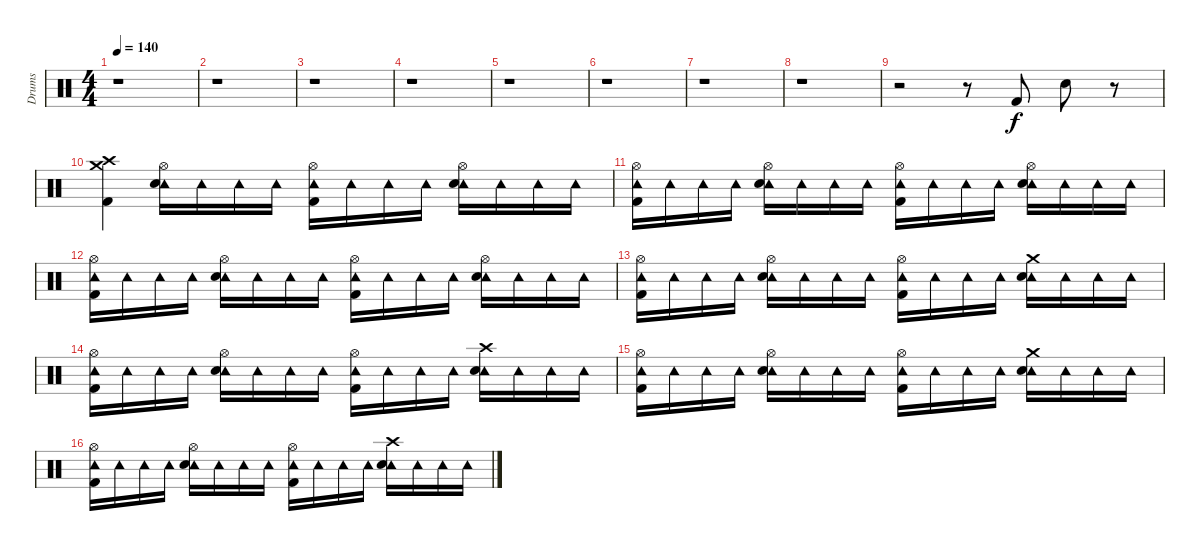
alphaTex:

\track ("Drums" "Drums") {instrument percussion}
\staff {score}
\articulation defaults
\ts (4 4)
\tempo 140
\clef neutral
\ks c
r.1{dy f} |
r.1 |
r.1 |
r.1 |
r.1 |
r.1 |
r.1 |
r.1 |
r.2 r.8 "Kick (hit) 2".8 "Snare (hit) 2".8 r.8 |
("Crash medium (hit)" "Crash high (hit)" "Kick (hit) 2").4 ("Tambourine (hit)" "Hi-Hat (open)" "Snare (hit) 2").16 "Tambourine (hit)".16 "Tambourine (hit)".16 "Tambourine (hit)".16 ("Tambourine (hit)" "Hi-Hat (open)" "Kick (hit) 2").16 "Tambourine (hit)".16 "Tambourine (hit)".16 "Tambourine (hit)".16 ("Tambourine (hit)" "Hi-Hat (open)" "Snare (hit) 2").16 "Tambourine (hit)".16 "Tambourine (hit)".16 "Tambourine (hit)".16 |
("Tambourine (hit)" "Hi-Hat (open)" "Kick (hit) 2").16 "Tambourine (hit)".16 "Tambourine (hit)".16 "Tambourine (hit)".16 ("Tambourine (hit)" "Hi-Hat (open)" "Snare (hit) 2").16 "Tambourine (hit)".16 "Tambourine (hit)".16 "Tambourine (hit)".16 ("Tambourine (hit)" "Hi-Hat (open)" "Kick (hit) 2").16 "Tambourine (hit)".16 "Tambourine (hit)".16 "Tambourine (hit)".16 ("Tambourine (hit)" "Hi-Hat (open)" "Snare (hit) 2").16 "Tambourine (hit)".16 "Tambourine (hit)".16 "Tambourine (hit)".16 |
("Tambourine (hit)" "Hi-Hat (open)" "Kick (hit) 2").16 "Tambourine (hit)".16 "Tambourine (hit)".16 "Tambourine (hit)".16 ("Tambourine (hit)" "Hi-Hat (open)" "Snare (hit) 2").16 "Tambourine (hit)".16 "Tambourine (hit)".16 "Tambourine (hit)".16 ("Tambourine (hit)" "Hi-Hat (open)" "Kick (hit) 2").16 "Tambourine (hit)".16 "Tambourine (hit)".16 "Tambourine (hit)".16 ("Tambourine (hit)" "Hi-Hat (open)" "Snare (hit) 2").16 "Tambourine (hit)".16 "Tambourine (hit)".16 "Tambourine (hit)".16 |
("Tambourine (hit)" "Hi-Hat (open)" "Kick (hit) 2").16 "Tambourine (hit)".16 "Tambourine (hit)".16 "Tambourine (hit)".16 ("Tambourine (hit)" "Hi-Hat (open)" "Snare (hit) 2").16 "Tambourine (hit)".16 "Tambourine (hit)".16 "Tambourine (hit)".16 ("Tambourine (hit)" "Hi-Hat (open)" "Kick (hit) 2").16 "Tambourine (hit)".16 "Tambourine (hit)".16 "Tambourine (hit)".16 ("Tambourine (hit)" "Crash medium (hit)" "Snare (hit) 2").16 "Tambourine (hit)".16 "Tambourine (hit)".16 "Tambourine (hit)".16 |
("Tambourine (hit)" "Hi-Hat (open)" "Kick (hit) 2").16 "Tambourine (hit)".16 "Tambourine (hit)".16 "Tambourine (hit)".16 ("Tambourine (hit)" "Hi-Hat (open)" "Snare (hit) 2").16 "Tambourine (hit)".16 "Tambourine (hit)".16 "Tambourine (hit)".16 ("Tambourine (hit)" "Hi-Hat (open)" "Kick (hit) 2").16 "Tambourine (hit)".16 "Tambourine (hit)".16 "Tambourine (hit)".16 ("Tambourine (hit)" "Crash high (hit)" "Snare (hit) 2").16 "Tambourine (hit)".16 "Tambourine (hit)".16 "Tambourine (hit)".16 |
("Tambourine (hit)" "Hi-Hat (open)" "Kick (hit) 2").16 "Tambourine (hit)".16 "Tambourine (hit)".16 "Tambourine (hit)".16 ("Tambourine (hit)" "Hi-Hat (open)" "Snare (hit) 2").16 "Tambourine (hit)".16 "Tambourine (hit)".16 "Tambourine (hit)".16 ("Tambourine (hit)" "Hi-Hat (open)" "Kick (hit) 2").16 "Tambourine (hit)".16 "Tambourine (hit)".16 "Tambourine (hit)".16 ("Tambourine (hit)" "Crash medium (hit)" "Snare (hit) 2").16 "Tambourine (hit)".16 "Tambourine (hit)".16 "Tambourine (hit)".16 |
("Tambourine (hit)" "Hi-Hat (open)" "Kick (hit) 2").16 "Tambourine (hit)".16 "Tambourine (hit)".16 "Tambourine (hit)".16 ("Tambourine (hit)" "Hi-Hat (open)" "Snare (hit) 2").16 "Tambourine (hit)".16 "Tambourine (hit)".16 "Tambourine (hit)".16 ("Tambourine (hit)" "Hi-Hat (open)" "Kick (hit) 2").16 "Tambourine (hit)".16 "Tambourine (hit)".16 "Tambourine (hit)".16 ("Tambourine (hit)" "Crash high (hit)" "Snare (hit) 2").16 "Tambourine (hit)".16 "Tambourine (hit)".16 "Tambourine (hit)".16
